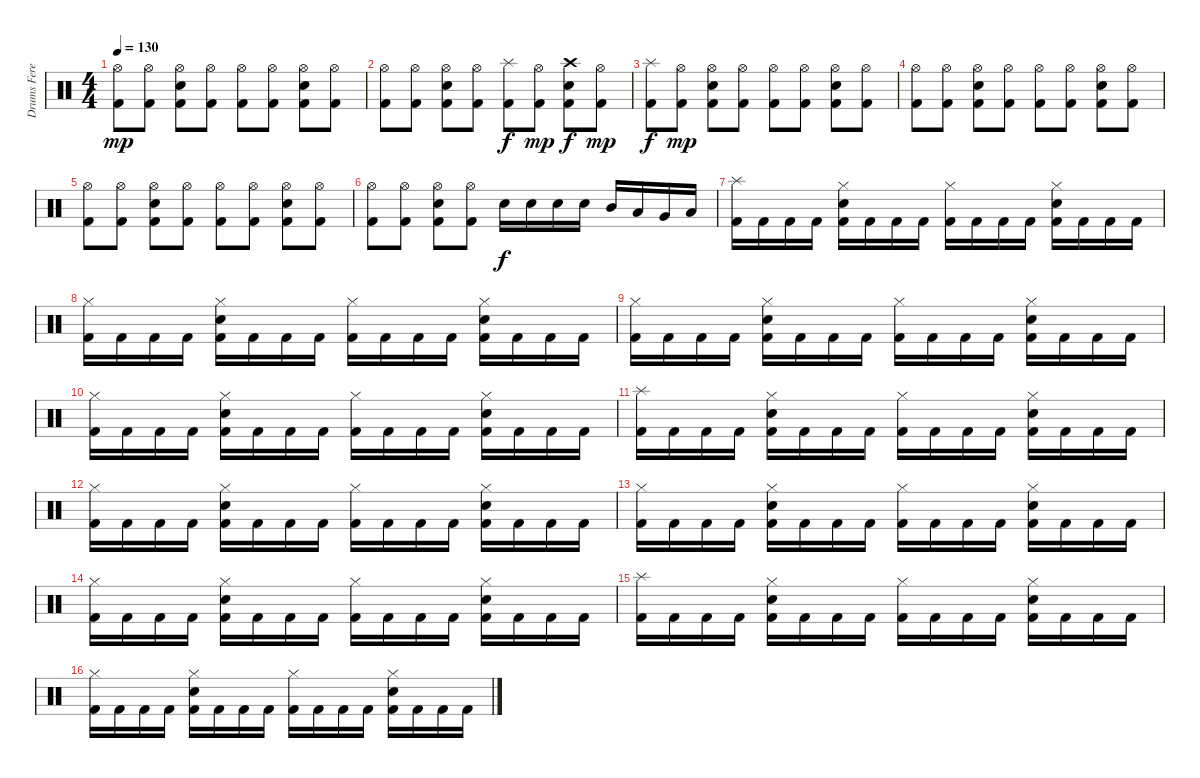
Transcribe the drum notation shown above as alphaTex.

\track ("Drums Feret" "Drums Fere") {instrument percussion}
\staff {score}
\articulation defaults
\ts (4 4)
\tempo 130
\clef neutral
\ks c
("Kick (hit) 2" "Hi-Hat (open)").8{dy mp} ("Kick (hit) 2" "Hi-Hat (open)").8 ("Kick (hit) 2" "Electric Snare (hit)" "Hi-Hat (open)").8 ("Kick (hit) 2" "Hi-Hat (open)").8 ("Kick (hit) 2" "Hi-Hat (open)").8 ("Kick (hit) 2" "Hi-Hat (open)").8 ("Kick (hit) 2" "Electric Snare (hit)" "Hi-Hat (open)").8 ("Kick (hit) 2" "Hi-Hat (open)").8 |
("Kick (hit) 2" "Hi-Hat (open)").8 ("Kick (hit) 2" "Hi-Hat (open)").8 ("Kick (hit) 2" "Electric Snare (hit)" "Hi-Hat (open)").8 ("Kick (hit) 2" "Hi-Hat (open)").8 ("Kick (hit) 2" "Splash (hit)").8{dy f} ("Kick (hit) 2" "Hi-Hat (open)").8{dy mp} ("Kick (hit) 2" "Electric Snare (hit)" "Crash high (hit)").8{dy f} ("Kick (hit) 2" "Hi-Hat (open)").8{dy mp} |
("Kick (hit) 2" "Splash (hit)").8{dy f} ("Kick (hit) 2" "Hi-Hat (open)").8{dy mp} ("Kick (hit) 2" "Electric Snare (hit)" "Hi-Hat (open)").8 ("Kick (hit) 2" "Hi-Hat (open)").8 ("Kick (hit) 2" "Hi-Hat (open)").8 ("Kick (hit) 2" "Hi-Hat (open)").8 ("Kick (hit) 2" "Electric Snare (hit)" "Hi-Hat (open)").8 ("Kick (hit) 2" "Hi-Hat (open)").8 |
("Kick (hit) 2" "Hi-Hat (open)").8 ("Kick (hit) 2" "Hi-Hat (open)").8 ("Kick (hit) 2" "Electric Snare (hit)" "Hi-Hat (open)").8 ("Kick (hit) 2" "Hi-Hat (open)").8 ("Kick (hit) 2" "Hi-Hat (open)").8 ("Kick (hit) 2" "Hi-Hat (open)").8 ("Kick (hit) 2" "Electric Snare (hit)" "Hi-Hat (open)").8 ("Kick (hit) 2" "Hi-Hat (open)").8 |
("Kick (hit) 2" "Hi-Hat (open)").8 ("Kick (hit) 2" "Hi-Hat (open)").8 ("Kick (hit) 2" "Electric Snare (hit)" "Hi-Hat (open)").8 ("Kick (hit) 2" "Hi-Hat (open)").8 ("Kick (hit) 2" "Hi-Hat (open)").8 ("Kick (hit) 2" "Hi-Hat (open)").8 ("Kick (hit) 2" "Electric Snare (hit)" "Hi-Hat (open)").8 ("Kick (hit) 2" "Hi-Hat (open)").8 |
("Kick (hit) 2" "Hi-Hat (open)").8 ("Kick (hit) 2" "Hi-Hat (open)").8 ("Kick (hit) 2" "Electric Snare (hit)" "Hi-Hat (open)").8 ("Kick (hit) 2" "Hi-Hat (open)").8 "Electric Snare (hit)".16{dy f} "Electric Snare (hit)".16 "Electric Snare (hit)".16 "Electric Snare (hit)".16 "Mid Tom (hit)".16 "Low Tom (hit)".16 "Very Low Tom (hit)".16 "Low Floor Tom (hit)".16 |
("Kick (hit) 2" "Splash (hit)").16 "Kick (hit) 2".16 "Kick (hit) 2".16 "Kick (hit) 2".16 ("Kick (hit) 2" "Electric Snare (hit)" "Hi-Hat (closed)").16 "Kick (hit) 2".16 "Kick (hit) 2".16 "Kick (hit) 2".16 ("Kick (hit) 2" "Hi-Hat (closed)").16 "Kick (hit) 2".16 "Kick (hit) 2".16 "Kick (hit) 2".16 ("Kick (hit) 2" "Electric Snare (hit)" "Hi-Hat (closed)").16 "Kick (hit) 2".16 "Kick (hit) 2".16 "Kick (hit) 2".16 |
("Kick (hit) 2" "Hi-Hat (closed)").16 "Kick (hit) 2".16 "Kick (hit) 2".16 "Kick (hit) 2".16 ("Kick (hit) 2" "Electric Snare (hit)" "Hi-Hat (closed)").16 "Kick (hit) 2".16 "Kick (hit) 2".16 "Kick (hit) 2".16 ("Kick (hit) 2" "Hi-Hat (closed)").16 "Kick (hit) 2".16 "Kick (hit) 2".16 "Kick (hit) 2".16 ("Kick (hit) 2" "Electric Snare (hit)" "Hi-Hat (closed)").16 "Kick (hit) 2".16 "Kick (hit) 2".16 "Kick (hit) 2".16 |
("Kick (hit) 2" "Hi-Hat (closed)").16 "Kick (hit) 2".16 "Kick (hit) 2".16 "Kick (hit) 2".16 ("Kick (hit) 2" "Electric Snare (hit)" "Hi-Hat (closed)").16 "Kick (hit) 2".16 "Kick (hit) 2".16 "Kick (hit) 2".16 ("Kick (hit) 2" "Hi-Hat (closed)").16 "Kick (hit) 2".16 "Kick (hit) 2".16 "Kick (hit) 2".16 ("Kick (hit) 2" "Electric Snare (hit)" "Hi-Hat (closed)").16 "Kick (hit) 2".16 "Kick (hit) 2".16 "Kick (hit) 2".16 |
("Kick (hit) 2" "Hi-Hat (closed)").16 "Kick (hit) 2".16 "Kick (hit) 2".16 "Kick (hit) 2".16 ("Kick (hit) 2" "Electric Snare (hit)" "Hi-Hat (closed)").16 "Kick (hit) 2".16 "Kick (hit) 2".16 "Kick (hit) 2".16 ("Kick (hit) 2" "Hi-Hat (closed)").16 "Kick (hit) 2".16 "Kick (hit) 2".16 "Kick (hit) 2".16 ("Kick (hit) 2" "Electric Snare (hit)" "Hi-Hat (closed)").16 "Kick (hit) 2".16 "Kick (hit) 2".16 "Kick (hit) 2".16 |
("Kick (hit) 2" "Splash (hit)").16 "Kick (hit) 2".16 "Kick (hit) 2".16 "Kick (hit) 2".16 ("Kick (hit) 2" "Electric Snare (hit)" "Hi-Hat (closed)").16 "Kick (hit) 2".16 "Kick (hit) 2".16 "Kick (hit) 2".16 ("Kick (hit) 2" "Hi-Hat (closed)").16 "Kick (hit) 2".16 "Kick (hit) 2".16 "Kick (hit) 2".16 ("Kick (hit) 2" "Electric Snare (hit)" "Hi-Hat (closed)").16 "Kick (hit) 2".16 "Kick (hit) 2".16 "Kick (hit) 2".16 |
("Kick (hit) 2" "Hi-Hat (closed)").16 "Kick (hit) 2".16 "Kick (hit) 2".16 "Kick (hit) 2".16 ("Kick (hit) 2" "Electric Snare (hit)" "Hi-Hat (closed)").16 "Kick (hit) 2".16 "Kick (hit) 2".16 "Kick (hit) 2".16 ("Kick (hit) 2" "Hi-Hat (closed)").16 "Kick (hit) 2".16 "Kick (hit) 2".16 "Kick (hit) 2".16 ("Kick (hit) 2" "Electric Snare (hit)" "Hi-Hat (closed)").16 "Kick (hit) 2".16 "Kick (hit) 2".16 "Kick (hit) 2".16 |
("Kick (hit) 2" "Hi-Hat (closed)").16 "Kick (hit) 2".16 "Kick (hit) 2".16 "Kick (hit) 2".16 ("Kick (hit) 2" "Electric Snare (hit)" "Hi-Hat (closed)").16 "Kick (hit) 2".16 "Kick (hit) 2".16 "Kick (hit) 2".16 ("Kick (hit) 2" "Hi-Hat (closed)").16 "Kick (hit) 2".16 "Kick (hit) 2".16 "Kick (hit) 2".16 ("Kick (hit) 2" "Electric Snare (hit)" "Hi-Hat (closed)").16 "Kick (hit) 2".16 "Kick (hit) 2".16 "Kick (hit) 2".16 |
("Kick (hit) 2" "Hi-Hat (closed)").16 "Kick (hit) 2".16 "Kick (hit) 2".16 "Kick (hit) 2".16 ("Kick (hit) 2" "Electric Snare (hit)" "Hi-Hat (closed)").16 "Kick (hit) 2".16 "Kick (hit) 2".16 "Kick (hit) 2".16 ("Kick (hit) 2" "Hi-Hat (closed)").16 "Kick (hit) 2".16 "Kick (hit) 2".16 "Kick (hit) 2".16 ("Kick (hit) 2" "Electric Snare (hit)" "Hi-Hat (closed)").16 "Kick (hit) 2".16 "Kick (hit) 2".16 "Kick (hit) 2".16 |
("Kick (hit) 2" "Splash (hit)").16 "Kick (hit) 2".16 "Kick (hit) 2".16 "Kick (hit) 2".16 ("Kick (hit) 2" "Electric Snare (hit)" "Hi-Hat (closed)").16 "Kick (hit) 2".16 "Kick (hit) 2".16 "Kick (hit) 2".16 ("Kick (hit) 2" "Hi-Hat (closed)").16 "Kick (hit) 2".16 "Kick (hit) 2".16 "Kick (hit) 2".16 ("Kick (hit) 2" "Electric Snare (hit)" "Hi-Hat (closed)").16 "Kick (hit) 2".16 "Kick (hit) 2".16 "Kick (hit) 2".16 |
("Kick (hit) 2" "Hi-Hat (closed)").16 "Kick (hit) 2".16 "Kick (hit) 2".16 "Kick (hit) 2".16 ("Kick (hit) 2" "Electric Snare (hit)" "Hi-Hat (closed)").16 "Kick (hit) 2".16 "Kick (hit) 2".16 "Kick (hit) 2".16 ("Kick (hit) 2" "Hi-Hat (closed)").16 "Kick (hit) 2".16 "Kick (hit) 2".16 "Kick (hit) 2".16 ("Kick (hit) 2" "Electric Snare (hit)" "Hi-Hat (closed)").16 "Kick (hit) 2".16 "Kick (hit) 2".16 "Kick (hit) 2".16
